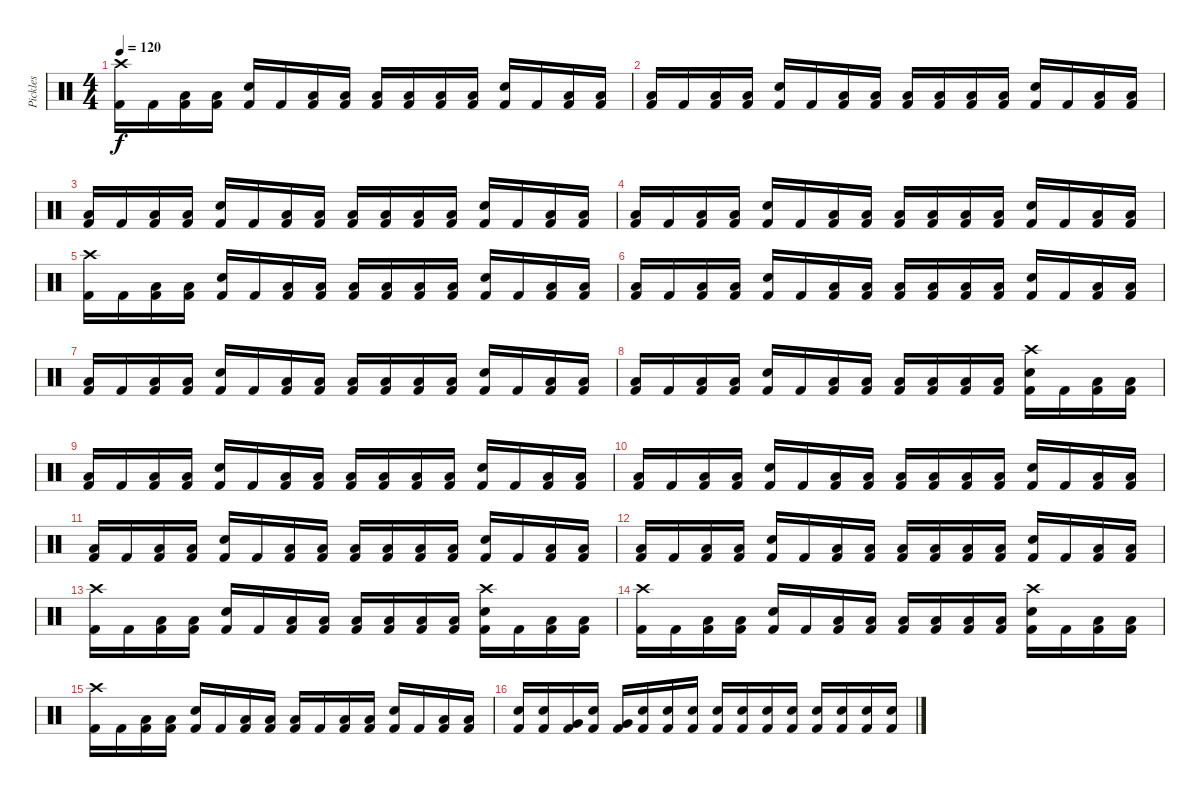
\track ("Pickles" "Pickles") {instrument percussion}
\staff {score}
\articulation defaults
\ts (4 4)
\tempo 120
\clef neutral
\ks c
("Crash high (hit)" "Kick (hit) 2").16{dy f} "Kick (hit) 2".16 ("Low Floor Tom (hit)" "Kick (hit) 2").16 ("Low Floor Tom (hit)" "Kick (hit) 2").16 ("Snare (hit) 2" "Kick (hit) 2").16 "Kick (hit) 2".16 ("Low Floor Tom (hit)" "Kick (hit) 2").16 ("Low Floor Tom (hit)" "Kick (hit) 2").16 ("Low Floor Tom (hit)" "Kick (hit) 2").16 ("Low Floor Tom (hit)" "Kick (hit) 2").16 ("Low Floor Tom (hit)" "Kick (hit) 2").16 ("Low Floor Tom (hit)" "Kick (hit) 2").16 ("Snare (hit) 2" "Kick (hit) 2").16 "Kick (hit) 2".16 ("Low Floor Tom (hit)" "Kick (hit) 2").16 ("Low Floor Tom (hit)" "Kick (hit) 2").16 |
("Low Floor Tom (hit)" "Kick (hit) 2").16 "Kick (hit) 2".16 ("Low Floor Tom (hit)" "Kick (hit) 2").16 ("Low Floor Tom (hit)" "Kick (hit) 2").16 ("Snare (hit) 2" "Kick (hit) 2").16 "Kick (hit) 2".16 ("Low Floor Tom (hit)" "Kick (hit) 2").16 ("Low Floor Tom (hit)" "Kick (hit) 2").16 ("Low Floor Tom (hit)" "Kick (hit) 2").16 ("Low Floor Tom (hit)" "Kick (hit) 2").16 ("Low Floor Tom (hit)" "Kick (hit) 2").16 ("Low Floor Tom (hit)" "Kick (hit) 2").16 ("Snare (hit) 2" "Kick (hit) 2").16 "Kick (hit) 2".16 ("Low Floor Tom (hit)" "Kick (hit) 2").16 ("Low Floor Tom (hit)" "Kick (hit) 2").16 |
("Low Floor Tom (hit)" "Kick (hit) 2").16 "Kick (hit) 2".16 ("Low Floor Tom (hit)" "Kick (hit) 2").16 ("Low Floor Tom (hit)" "Kick (hit) 2").16 ("Snare (hit) 2" "Kick (hit) 2").16 "Kick (hit) 2".16 ("Low Floor Tom (hit)" "Kick (hit) 2").16 ("Low Floor Tom (hit)" "Kick (hit) 2").16 ("Low Floor Tom (hit)" "Kick (hit) 2").16 ("Low Floor Tom (hit)" "Kick (hit) 2").16 ("Low Floor Tom (hit)" "Kick (hit) 2").16 ("Low Floor Tom (hit)" "Kick (hit) 2").16 ("Snare (hit) 2" "Kick (hit) 2").16 "Kick (hit) 2".16 ("Low Floor Tom (hit)" "Kick (hit) 2").16 ("Low Floor Tom (hit)" "Kick (hit) 2").16 |
("Low Floor Tom (hit)" "Kick (hit) 2").16 "Kick (hit) 2".16 ("Low Floor Tom (hit)" "Kick (hit) 2").16 ("Low Floor Tom (hit)" "Kick (hit) 2").16 ("Snare (hit) 2" "Kick (hit) 2").16 "Kick (hit) 2".16 ("Low Floor Tom (hit)" "Kick (hit) 2").16 ("Low Floor Tom (hit)" "Kick (hit) 2").16 ("Low Floor Tom (hit)" "Kick (hit) 2").16 ("Low Floor Tom (hit)" "Kick (hit) 2").16 ("Low Floor Tom (hit)" "Kick (hit) 2").16 ("Low Floor Tom (hit)" "Kick (hit) 2").16 ("Snare (hit) 2" "Kick (hit) 2").16 "Kick (hit) 2".16 ("Low Floor Tom (hit)" "Kick (hit) 2").16 ("Low Floor Tom (hit)" "Kick (hit) 2").16 |
("Crash high (hit)" "Kick (hit) 2").16 "Kick (hit) 2".16 ("Low Floor Tom (hit)" "Kick (hit) 2").16 ("Low Floor Tom (hit)" "Kick (hit) 2").16 ("Snare (hit) 2" "Kick (hit) 2").16 "Kick (hit) 2".16 ("Low Floor Tom (hit)" "Kick (hit) 2").16 ("Low Floor Tom (hit)" "Kick (hit) 2").16 ("Low Floor Tom (hit)" "Kick (hit) 2").16 ("Low Floor Tom (hit)" "Kick (hit) 2").16 ("Low Floor Tom (hit)" "Kick (hit) 2").16 ("Low Floor Tom (hit)" "Kick (hit) 2").16 ("Snare (hit) 2" "Kick (hit) 2").16 "Kick (hit) 2".16 ("Low Floor Tom (hit)" "Kick (hit) 2").16 ("Low Floor Tom (hit)" "Kick (hit) 2").16 |
("Low Floor Tom (hit)" "Kick (hit) 2").16 "Kick (hit) 2".16 ("Low Floor Tom (hit)" "Kick (hit) 2").16 ("Low Floor Tom (hit)" "Kick (hit) 2").16 ("Snare (hit) 2" "Kick (hit) 2").16 "Kick (hit) 2".16 ("Low Floor Tom (hit)" "Kick (hit) 2").16 ("Low Floor Tom (hit)" "Kick (hit) 2").16 ("Low Floor Tom (hit)" "Kick (hit) 2").16 ("Low Floor Tom (hit)" "Kick (hit) 2").16 ("Low Floor Tom (hit)" "Kick (hit) 2").16 ("Low Floor Tom (hit)" "Kick (hit) 2").16 ("Snare (hit) 2" "Kick (hit) 2").16 "Kick (hit) 2".16 ("Low Floor Tom (hit)" "Kick (hit) 2").16 ("Low Floor Tom (hit)" "Kick (hit) 2").16 |
("Low Floor Tom (hit)" "Kick (hit) 2").16 "Kick (hit) 2".16 ("Low Floor Tom (hit)" "Kick (hit) 2").16 ("Low Floor Tom (hit)" "Kick (hit) 2").16 ("Snare (hit) 2" "Kick (hit) 2").16 "Kick (hit) 2".16 ("Low Floor Tom (hit)" "Kick (hit) 2").16 ("Low Floor Tom (hit)" "Kick (hit) 2").16 ("Low Floor Tom (hit)" "Kick (hit) 2").16 ("Low Floor Tom (hit)" "Kick (hit) 2").16 ("Low Floor Tom (hit)" "Kick (hit) 2").16 ("Low Floor Tom (hit)" "Kick (hit) 2").16 ("Snare (hit) 2" "Kick (hit) 2").16 "Kick (hit) 2".16 ("Low Floor Tom (hit)" "Kick (hit) 2").16 ("Low Floor Tom (hit)" "Kick (hit) 2").16 |
("Low Floor Tom (hit)" "Kick (hit) 2").16 "Kick (hit) 2".16 ("Low Floor Tom (hit)" "Kick (hit) 2").16 ("Low Floor Tom (hit)" "Kick (hit) 2").16 ("Snare (hit) 2" "Kick (hit) 2").16 "Kick (hit) 2".16 ("Low Floor Tom (hit)" "Kick (hit) 2").16 ("Low Floor Tom (hit)" "Kick (hit) 2").16 ("Low Floor Tom (hit)" "Kick (hit) 2").16 ("Low Floor Tom (hit)" "Kick (hit) 2").16 ("Low Floor Tom (hit)" "Kick (hit) 2").16 ("Low Floor Tom (hit)" "Kick (hit) 2").16 ("Crash high (hit)" "Snare (hit) 2" "Kick (hit) 2").16 "Kick (hit) 2".16 ("Low Floor Tom (hit)" "Kick (hit) 2").16 ("Low Floor Tom (hit)" "Kick (hit) 2").16 |
("Low Floor Tom (hit)" "Kick (hit) 2").16 "Kick (hit) 2".16 ("Low Floor Tom (hit)" "Kick (hit) 2").16 ("Low Floor Tom (hit)" "Kick (hit) 2").16 ("Snare (hit) 2" "Kick (hit) 2").16 "Kick (hit) 2".16 ("Low Floor Tom (hit)" "Kick (hit) 2").16 ("Low Floor Tom (hit)" "Kick (hit) 2").16 ("Low Floor Tom (hit)" "Kick (hit) 2").16 ("Low Floor Tom (hit)" "Kick (hit) 2").16 ("Low Floor Tom (hit)" "Kick (hit) 2").16 ("Low Floor Tom (hit)" "Kick (hit) 2").16 ("Snare (hit) 2" "Kick (hit) 2").16 "Kick (hit) 2".16 ("Low Floor Tom (hit)" "Kick (hit) 2").16 ("Low Floor Tom (hit)" "Kick (hit) 2").16 |
("Low Floor Tom (hit)" "Kick (hit) 2").16 "Kick (hit) 2".16 ("Low Floor Tom (hit)" "Kick (hit) 2").16 ("Low Floor Tom (hit)" "Kick (hit) 2").16 ("Snare (hit) 2" "Kick (hit) 2").16 "Kick (hit) 2".16 ("Low Floor Tom (hit)" "Kick (hit) 2").16 ("Low Floor Tom (hit)" "Kick (hit) 2").16 ("Low Floor Tom (hit)" "Kick (hit) 2").16 ("Low Floor Tom (hit)" "Kick (hit) 2").16 ("Low Floor Tom (hit)" "Kick (hit) 2").16 ("Low Floor Tom (hit)" "Kick (hit) 2").16 ("Snare (hit) 2" "Kick (hit) 2").16 "Kick (hit) 2".16 ("Low Floor Tom (hit)" "Kick (hit) 2").16 ("Low Floor Tom (hit)" "Kick (hit) 2").16 |
("Low Floor Tom (hit)" "Kick (hit) 2").16 "Kick (hit) 2".16 ("Low Floor Tom (hit)" "Kick (hit) 2").16 ("Low Floor Tom (hit)" "Kick (hit) 2").16 ("Snare (hit) 2" "Kick (hit) 2").16 "Kick (hit) 2".16 ("Low Floor Tom (hit)" "Kick (hit) 2").16 ("Low Floor Tom (hit)" "Kick (hit) 2").16 ("Low Floor Tom (hit)" "Kick (hit) 2").16 ("Low Floor Tom (hit)" "Kick (hit) 2").16 ("Low Floor Tom (hit)" "Kick (hit) 2").16 ("Low Floor Tom (hit)" "Kick (hit) 2").16 ("Snare (hit) 2" "Kick (hit) 2").16 "Kick (hit) 2".16 ("Low Floor Tom (hit)" "Kick (hit) 2").16 ("Low Floor Tom (hit)" "Kick (hit) 2").16 |
("Low Floor Tom (hit)" "Kick (hit) 2").16 "Kick (hit) 2".16 ("Low Floor Tom (hit)" "Kick (hit) 2").16 ("Low Floor Tom (hit)" "Kick (hit) 2").16 ("Snare (hit) 2" "Kick (hit) 2").16 "Kick (hit) 2".16 ("Low Floor Tom (hit)" "Kick (hit) 2").16 ("Low Floor Tom (hit)" "Kick (hit) 2").16 ("Low Floor Tom (hit)" "Kick (hit) 2").16 ("Low Floor Tom (hit)" "Kick (hit) 2").16 ("Low Floor Tom (hit)" "Kick (hit) 2").16 ("Low Floor Tom (hit)" "Kick (hit) 2").16 ("Snare (hit) 2" "Kick (hit) 2").16 "Kick (hit) 2".16 ("Low Floor Tom (hit)" "Kick (hit) 2").16 ("Low Floor Tom (hit)" "Kick (hit) 2").16 |
("Crash high (hit)" "Kick (hit) 2").16 "Kick (hit) 2".16 ("Low Floor Tom (hit)" "Kick (hit) 2").16 ("Low Floor Tom (hit)" "Kick (hit) 2").16 ("Snare (hit) 2" "Kick (hit) 2").16 "Kick (hit) 2".16 ("Low Floor Tom (hit)" "Kick (hit) 2").16 ("Low Floor Tom (hit)" "Kick (hit) 2").16 ("Low Floor Tom (hit)" "Kick (hit) 2").16 ("Low Floor Tom (hit)" "Kick (hit) 2").16 ("Low Floor Tom (hit)" "Kick (hit) 2").16 ("Low Floor Tom (hit)" "Kick (hit) 2").16 ("Crash high (hit)" "Snare (hit) 2" "Kick (hit) 2").16 "Kick (hit) 2".16 ("Low Floor Tom (hit)" "Kick (hit) 2").16 ("Low Floor Tom (hit)" "Kick (hit) 2").16 |
("Crash high (hit)" "Kick (hit) 2").16 "Kick (hit) 2".16 ("Low Floor Tom (hit)" "Kick (hit) 2").16 ("Low Floor Tom (hit)" "Kick (hit) 2").16 ("Snare (hit) 2" "Kick (hit) 2").16 "Kick (hit) 2".16 ("Low Floor Tom (hit)" "Kick (hit) 2").16 ("Low Floor Tom (hit)" "Kick (hit) 2").16 ("Low Floor Tom (hit)" "Kick (hit) 2").16 ("Low Floor Tom (hit)" "Kick (hit) 2").16 ("Low Floor Tom (hit)" "Kick (hit) 2").16 ("Low Floor Tom (hit)" "Kick (hit) 2").16 ("Crash high (hit)" "Snare (hit) 2" "Kick (hit) 2").16 "Kick (hit) 2".16 ("Low Floor Tom (hit)" "Kick (hit) 2").16 ("Low Floor Tom (hit)" "Kick (hit) 2").16 |
("Crash high (hit)" "Kick (hit) 2").16 "Kick (hit) 2".16 ("Low Floor Tom (hit)" "Kick (hit) 2").16 ("Low Floor Tom (hit)" "Kick (hit) 2").16 ("Snare (hit) 2" "Kick (hit) 2").16 "Kick (hit) 2".16 ("Low Floor Tom (hit)" "Kick (hit) 2").16 ("Low Floor Tom (hit)" "Kick (hit) 2").16 ("Low Floor Tom (hit)" "Kick (hit) 2").16 "Kick (hit) 2".16 ("Low Floor Tom (hit)" "Kick (hit) 2").16 ("Low Floor Tom (hit)" "Kick (hit) 2").16 ("Snare (hit) 2" "Kick (hit) 2").16 "Kick (hit) 2".16 ("Low Floor Tom (hit)" "Kick (hit) 2").16 ("Low Floor Tom (hit)" "Kick (hit) 2").16 |
("Snare (hit) 2" "Kick (hit) 2").16 ("Snare (hit) 2" "Kick (hit) 2").16 ("Very Low Tom (hit)" "Kick (hit) 2").16 ("Snare (hit) 2" "Kick (hit) 2").16 ("Very Low Tom (hit)" "Kick (hit) 2").16 ("Snare (hit) 2" "Kick (hit) 2").16 ("Snare (hit) 2" "Kick (hit) 2").16 ("Snare (hit) 2" "Kick (hit) 2").16 ("Snare (hit) 2" "Kick (hit) 2").16 ("Snare (hit) 2" "Kick (hit) 2").16 ("Snare (hit) 2" "Kick (hit) 2").16 ("Snare (hit) 2" "Kick (hit) 2").16 ("Snare (hit) 2" "Kick (hit) 2").16 ("Snare (hit) 2" "Kick (hit) 2").16 ("Snare (hit) 2" "Kick (hit) 2").16 ("Snare (hit) 2" "Kick (hit) 2").16
